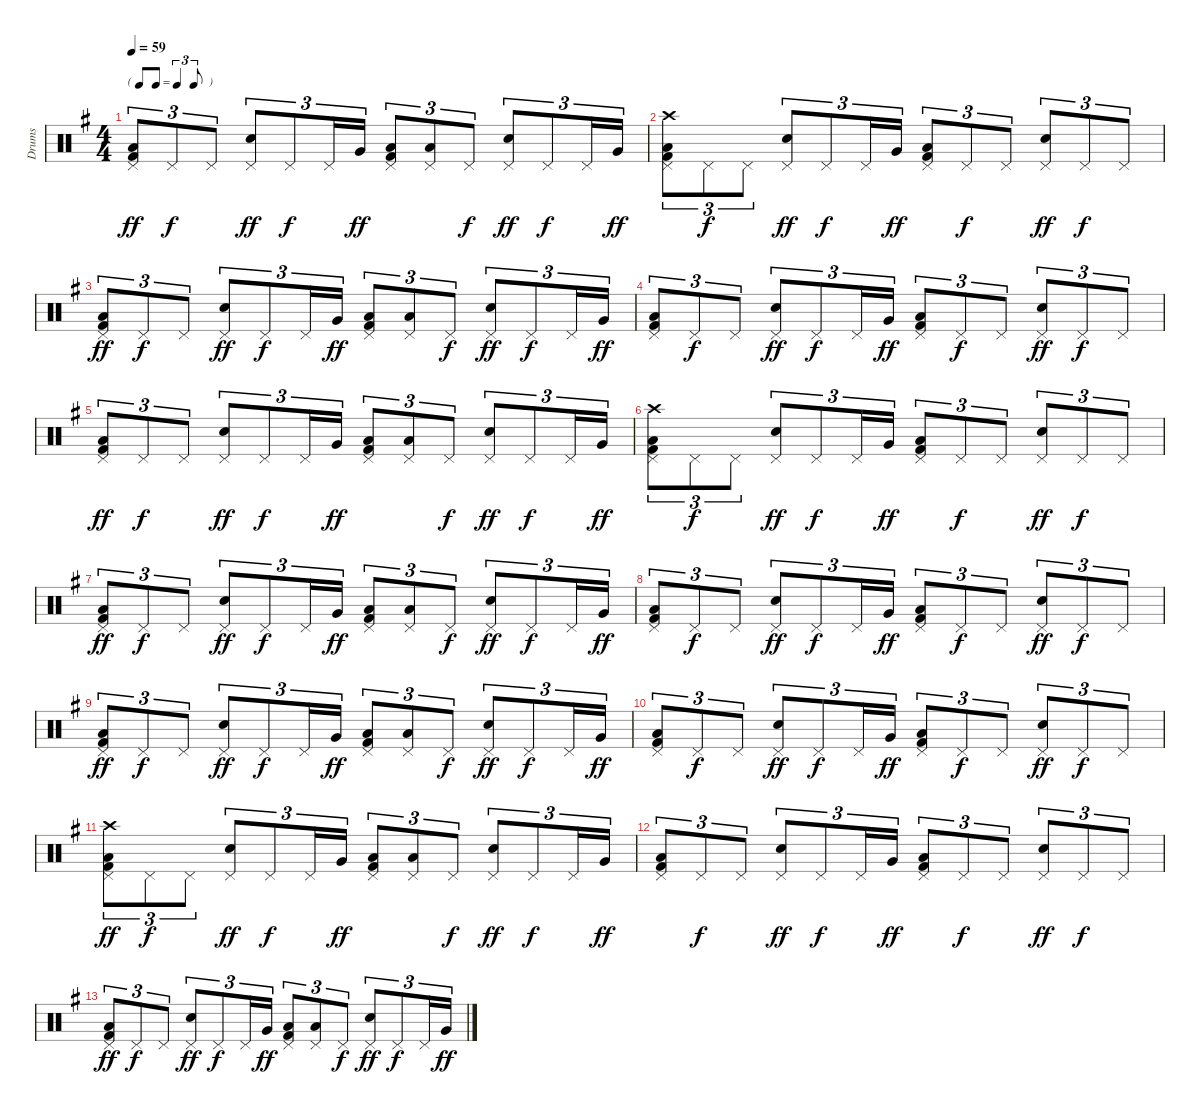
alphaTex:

\track ("Drums" "Drums") {instrument percussion}
\staff {score}
\articulation defaults
\ts (4 4)
\tf triplet8th
\tempo 59
\clef neutral
\ks g
("Pedal Hi-Hat (hit)" "Low Floor Tom (hit)" "Kick (hit) 2").8{tu (3 2) dy ff} "Pedal Hi-Hat (hit)".8{tu (3 2) dy f} "Pedal Hi-Hat (hit)".8{tu (3 2)} ("Pedal Hi-Hat (hit)" "Electric Snare (hit)").8{tu (3 2) dy ff} "Pedal Hi-Hat (hit)".8{tu (3 2) dy f} "Pedal Hi-Hat (hit)".16{tu (3 2)} "Very Low Tom (hit)".16{tu (3 2) dy ff} ("Pedal Hi-Hat (hit)" "Low Floor Tom (hit)" "Kick (hit) 2").8{tu (3 2)} ("Pedal Hi-Hat (hit)" "Low Floor Tom (hit)").8{tu (3 2)} "Pedal Hi-Hat (hit)".8{tu (3 2) dy f} ("Pedal Hi-Hat (hit)" "Electric Snare (hit)").8{tu (3 2) dy ff} "Pedal Hi-Hat (hit)".8{tu (3 2) dy f} "Pedal Hi-Hat (hit)".16{tu (3 2)} "Very Low Tom (hit)".16{tu (3 2) dy ff} |
("Pedal Hi-Hat (hit)" "Crash high (hit)" "Low Floor Tom (hit)" "Kick (hit) 2").8{tu (3 2)} "Pedal Hi-Hat (hit)".8{tu (3 2) dy f} "Pedal Hi-Hat (hit)".8{tu (3 2)} ("Pedal Hi-Hat (hit)" "Electric Snare (hit)").8{tu (3 2) dy ff} "Pedal Hi-Hat (hit)".8{tu (3 2) dy f} "Pedal Hi-Hat (hit)".16{tu (3 2)} "Very Low Tom (hit)".16{tu (3 2) dy ff} ("Pedal Hi-Hat (hit)" "Low Floor Tom (hit)" "Kick (hit) 2").8{tu (3 2)} "Pedal Hi-Hat (hit)".8{tu (3 2) dy f} "Pedal Hi-Hat (hit)".8{tu (3 2)} ("Pedal Hi-Hat (hit)" "Electric Snare (hit)").8{tu (3 2) dy ff} "Pedal Hi-Hat (hit)".8{tu (3 2) dy f} "Pedal Hi-Hat (hit)".8{tu (3 2)} |
("Pedal Hi-Hat (hit)" "Low Floor Tom (hit)" "Kick (hit) 2").8{tu (3 2) dy ff} "Pedal Hi-Hat (hit)".8{tu (3 2) dy f} "Pedal Hi-Hat (hit)".8{tu (3 2)} ("Pedal Hi-Hat (hit)" "Electric Snare (hit)").8{tu (3 2) dy ff} "Pedal Hi-Hat (hit)".8{tu (3 2) dy f} "Pedal Hi-Hat (hit)".16{tu (3 2)} "Very Low Tom (hit)".16{tu (3 2) dy ff} ("Pedal Hi-Hat (hit)" "Low Floor Tom (hit)" "Kick (hit) 2").8{tu (3 2)} ("Pedal Hi-Hat (hit)" "Low Floor Tom (hit)").8{tu (3 2)} "Pedal Hi-Hat (hit)".8{tu (3 2) dy f} ("Pedal Hi-Hat (hit)" "Electric Snare (hit)").8{tu (3 2) dy ff} "Pedal Hi-Hat (hit)".8{tu (3 2) dy f} "Pedal Hi-Hat (hit)".16{tu (3 2)} "Very Low Tom (hit)".16{tu (3 2) dy ff} |
("Pedal Hi-Hat (hit)" "Low Floor Tom (hit)" "Kick (hit) 2").8{tu (3 2)} "Pedal Hi-Hat (hit)".8{tu (3 2) dy f} "Pedal Hi-Hat (hit)".8{tu (3 2)} ("Pedal Hi-Hat (hit)" "Electric Snare (hit)").8{tu (3 2) dy ff} "Pedal Hi-Hat (hit)".8{tu (3 2) dy f} "Pedal Hi-Hat (hit)".16{tu (3 2)} "Very Low Tom (hit)".16{tu (3 2) dy ff} ("Pedal Hi-Hat (hit)" "Low Floor Tom (hit)" "Kick (hit) 2").8{tu (3 2)} "Pedal Hi-Hat (hit)".8{tu (3 2) dy f} "Pedal Hi-Hat (hit)".8{tu (3 2)} ("Pedal Hi-Hat (hit)" "Electric Snare (hit)").8{tu (3 2) dy ff} "Pedal Hi-Hat (hit)".8{tu (3 2) dy f} "Pedal Hi-Hat (hit)".8{tu (3 2)} |
("Pedal Hi-Hat (hit)" "Low Floor Tom (hit)" "Kick (hit) 2").8{tu (3 2) dy ff} "Pedal Hi-Hat (hit)".8{tu (3 2) dy f} "Pedal Hi-Hat (hit)".8{tu (3 2)} ("Pedal Hi-Hat (hit)" "Electric Snare (hit)").8{tu (3 2) dy ff} "Pedal Hi-Hat (hit)".8{tu (3 2) dy f} "Pedal Hi-Hat (hit)".16{tu (3 2)} "Very Low Tom (hit)".16{tu (3 2) dy ff} ("Pedal Hi-Hat (hit)" "Low Floor Tom (hit)" "Kick (hit) 2").8{tu (3 2)} ("Pedal Hi-Hat (hit)" "Low Floor Tom (hit)").8{tu (3 2)} "Pedal Hi-Hat (hit)".8{tu (3 2) dy f} ("Pedal Hi-Hat (hit)" "Electric Snare (hit)").8{tu (3 2) dy ff} "Pedal Hi-Hat (hit)".8{tu (3 2) dy f} "Pedal Hi-Hat (hit)".16{tu (3 2)} "Very Low Tom (hit)".16{tu (3 2) dy ff} |
("Pedal Hi-Hat (hit)" "Crash high (hit)" "Low Floor Tom (hit)" "Kick (hit) 2").8{tu (3 2)} "Pedal Hi-Hat (hit)".8{tu (3 2) dy f} "Pedal Hi-Hat (hit)".8{tu (3 2)} ("Pedal Hi-Hat (hit)" "Electric Snare (hit)").8{tu (3 2) dy ff} "Pedal Hi-Hat (hit)".8{tu (3 2) dy f} "Pedal Hi-Hat (hit)".16{tu (3 2)} "Very Low Tom (hit)".16{tu (3 2) dy ff} ("Pedal Hi-Hat (hit)" "Low Floor Tom (hit)" "Kick (hit) 2").8{tu (3 2)} "Pedal Hi-Hat (hit)".8{tu (3 2) dy f} "Pedal Hi-Hat (hit)".8{tu (3 2)} ("Pedal Hi-Hat (hit)" "Electric Snare (hit)").8{tu (3 2) dy ff} "Pedal Hi-Hat (hit)".8{tu (3 2) dy f} "Pedal Hi-Hat (hit)".8{tu (3 2)} |
("Pedal Hi-Hat (hit)" "Low Floor Tom (hit)" "Kick (hit) 2").8{tu (3 2) dy ff} "Pedal Hi-Hat (hit)".8{tu (3 2) dy f} "Pedal Hi-Hat (hit)".8{tu (3 2)} ("Pedal Hi-Hat (hit)" "Electric Snare (hit)").8{tu (3 2) dy ff} "Pedal Hi-Hat (hit)".8{tu (3 2) dy f} "Pedal Hi-Hat (hit)".16{tu (3 2)} "Very Low Tom (hit)".16{tu (3 2) dy ff} ("Pedal Hi-Hat (hit)" "Low Floor Tom (hit)" "Kick (hit) 2").8{tu (3 2)} ("Pedal Hi-Hat (hit)" "Low Floor Tom (hit)").8{tu (3 2)} "Pedal Hi-Hat (hit)".8{tu (3 2) dy f} ("Pedal Hi-Hat (hit)" "Electric Snare (hit)").8{tu (3 2) dy ff} "Pedal Hi-Hat (hit)".8{tu (3 2) dy f} "Pedal Hi-Hat (hit)".16{tu (3 2)} "Very Low Tom (hit)".16{tu (3 2) dy ff} |
("Pedal Hi-Hat (hit)" "Low Floor Tom (hit)" "Kick (hit) 2").8{tu (3 2)} "Pedal Hi-Hat (hit)".8{tu (3 2) dy f} "Pedal Hi-Hat (hit)".8{tu (3 2)} ("Pedal Hi-Hat (hit)" "Electric Snare (hit)").8{tu (3 2) dy ff} "Pedal Hi-Hat (hit)".8{tu (3 2) dy f} "Pedal Hi-Hat (hit)".16{tu (3 2)} "Very Low Tom (hit)".16{tu (3 2) dy ff} ("Pedal Hi-Hat (hit)" "Low Floor Tom (hit)" "Kick (hit) 2").8{tu (3 2)} "Pedal Hi-Hat (hit)".8{tu (3 2) dy f} "Pedal Hi-Hat (hit)".8{tu (3 2)} ("Pedal Hi-Hat (hit)" "Electric Snare (hit)").8{tu (3 2) dy ff} "Pedal Hi-Hat (hit)".8{tu (3 2) dy f} "Pedal Hi-Hat (hit)".8{tu (3 2)} |
("Pedal Hi-Hat (hit)" "Low Floor Tom (hit)" "Kick (hit) 2").8{tu (3 2) dy ff} "Pedal Hi-Hat (hit)".8{tu (3 2) dy f} "Pedal Hi-Hat (hit)".8{tu (3 2)} ("Pedal Hi-Hat (hit)" "Electric Snare (hit)").8{tu (3 2) dy ff} "Pedal Hi-Hat (hit)".8{tu (3 2) dy f} "Pedal Hi-Hat (hit)".16{tu (3 2)} "Very Low Tom (hit)".16{tu (3 2) dy ff} ("Pedal Hi-Hat (hit)" "Low Floor Tom (hit)" "Kick (hit) 2").8{tu (3 2)} ("Pedal Hi-Hat (hit)" "Low Floor Tom (hit)").8{tu (3 2)} "Pedal Hi-Hat (hit)".8{tu (3 2) dy f} ("Pedal Hi-Hat (hit)" "Electric Snare (hit)").8{tu (3 2) dy ff} "Pedal Hi-Hat (hit)".8{tu (3 2) dy f} "Pedal Hi-Hat (hit)".16{tu (3 2)} "Very Low Tom (hit)".16{tu (3 2) dy ff} |
("Pedal Hi-Hat (hit)" "Low Floor Tom (hit)" "Kick (hit) 2").8{tu (3 2)} "Pedal Hi-Hat (hit)".8{tu (3 2) dy f} "Pedal Hi-Hat (hit)".8{tu (3 2)} ("Pedal Hi-Hat (hit)" "Electric Snare (hit)").8{tu (3 2) dy ff} "Pedal Hi-Hat (hit)".8{tu (3 2) dy f} "Pedal Hi-Hat (hit)".16{tu (3 2)} "Very Low Tom (hit)".16{tu (3 2) dy ff} ("Pedal Hi-Hat (hit)" "Low Floor Tom (hit)" "Kick (hit) 2").8{tu (3 2)} "Pedal Hi-Hat (hit)".8{tu (3 2) dy f} "Pedal Hi-Hat (hit)".8{tu (3 2)} ("Pedal Hi-Hat (hit)" "Electric Snare (hit)").8{tu (3 2) dy ff} "Pedal Hi-Hat (hit)".8{tu (3 2) dy f} "Pedal Hi-Hat (hit)".8{tu (3 2)} |
("Pedal Hi-Hat (hit)" "Crash high (hit)" "Low Floor Tom (hit)" "Kick (hit) 2").8{tu (3 2) dy ff} "Pedal Hi-Hat (hit)".8{tu (3 2) dy f} "Pedal Hi-Hat (hit)".8{tu (3 2)} ("Pedal Hi-Hat (hit)" "Electric Snare (hit)").8{tu (3 2) dy ff} "Pedal Hi-Hat (hit)".8{tu (3 2) dy f} "Pedal Hi-Hat (hit)".16{tu (3 2)} "Very Low Tom (hit)".16{tu (3 2) dy ff} ("Pedal Hi-Hat (hit)" "Low Floor Tom (hit)" "Kick (hit) 2").8{tu (3 2)} ("Pedal Hi-Hat (hit)" "Low Floor Tom (hit)").8{tu (3 2)} "Pedal Hi-Hat (hit)".8{tu (3 2) dy f} ("Pedal Hi-Hat (hit)" "Electric Snare (hit)").8{tu (3 2) dy ff} "Pedal Hi-Hat (hit)".8{tu (3 2) dy f} "Pedal Hi-Hat (hit)".16{tu (3 2)} "Very Low Tom (hit)".16{tu (3 2) dy ff} |
("Pedal Hi-Hat (hit)" "Low Floor Tom (hit)" "Kick (hit) 2").8{tu (3 2)} "Pedal Hi-Hat (hit)".8{tu (3 2) dy f} "Pedal Hi-Hat (hit)".8{tu (3 2)} ("Pedal Hi-Hat (hit)" "Electric Snare (hit)").8{tu (3 2) dy ff} "Pedal Hi-Hat (hit)".8{tu (3 2) dy f} "Pedal Hi-Hat (hit)".16{tu (3 2)} "Very Low Tom (hit)".16{tu (3 2) dy ff} ("Pedal Hi-Hat (hit)" "Low Floor Tom (hit)" "Kick (hit) 2").8{tu (3 2)} "Pedal Hi-Hat (hit)".8{tu (3 2) dy f} "Pedal Hi-Hat (hit)".8{tu (3 2)} ("Pedal Hi-Hat (hit)" "Electric Snare (hit)").8{tu (3 2) dy ff} "Pedal Hi-Hat (hit)".8{tu (3 2) dy f} "Pedal Hi-Hat (hit)".8{tu (3 2)} |
("Pedal Hi-Hat (hit)" "Low Floor Tom (hit)" "Kick (hit) 2").8{tu (3 2) dy ff} "Pedal Hi-Hat (hit)".8{tu (3 2) dy f} "Pedal Hi-Hat (hit)".8{tu (3 2)} ("Pedal Hi-Hat (hit)" "Electric Snare (hit)").8{tu (3 2) dy ff} "Pedal Hi-Hat (hit)".8{tu (3 2) dy f} "Pedal Hi-Hat (hit)".16{tu (3 2)} "Very Low Tom (hit)".16{tu (3 2) dy ff} ("Pedal Hi-Hat (hit)" "Low Floor Tom (hit)" "Kick (hit) 2").8{tu (3 2)} ("Pedal Hi-Hat (hit)" "Low Floor Tom (hit)").8{tu (3 2)} "Pedal Hi-Hat (hit)".8{tu (3 2) dy f} ("Pedal Hi-Hat (hit)" "Electric Snare (hit)").8{tu (3 2) dy ff} "Pedal Hi-Hat (hit)".8{tu (3 2) dy f} "Pedal Hi-Hat (hit)".16{tu (3 2)} "Very Low Tom (hit)".16{tu (3 2) dy ff}
